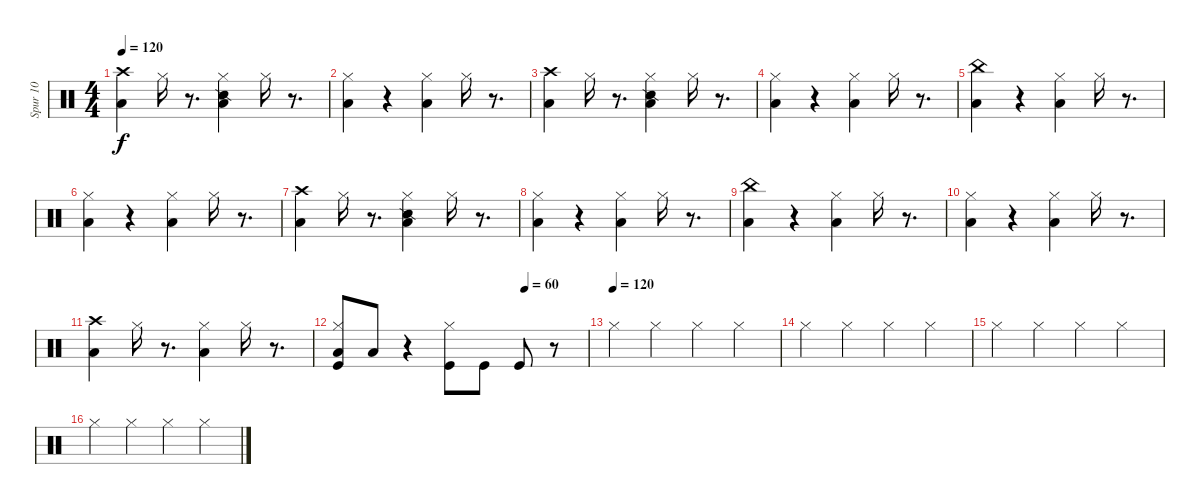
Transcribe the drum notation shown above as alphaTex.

\track ("Spur 10" "Spur 10") {instrument percussion}
\staff {score}
\articulation defaults
\ts (4 4)
\tempo 120
\clef neutral
\ks c
("Low Floor Tom (hit)" "Crash high (hit)").4{dy f} "Hi-Hat (closed)".16 r.8{d} ("Snare (side stick) 2" "Hi-Hat (closed)" "Low Tom (hit)").4 "Hi-Hat (closed)".16 r.8{d} |
("Hi-Hat (closed)" "Low Floor Tom (hit)").4 r.4 ("Hi-Hat (closed)" "Low Tom (hit)").4 "Hi-Hat (closed)".16 r.8{d} |
("Low Floor Tom (hit)" "Crash high (hit)").4 "Hi-Hat (closed)".16 r.8{d} ("Snare (side stick) 2" "Hi-Hat (closed)" "Low Tom (hit)").4 "Hi-Hat (closed)".16 r.8{d} |
("Hi-Hat (closed)" "Low Floor Tom (hit)").4 r.4 ("Hi-Hat (closed)" "Low Tom (hit)").4 "Hi-Hat (closed)".16 r.8{d} |
("Low Floor Tom (hit)" "China (hit)").4 r.4 ("Hi-Hat (closed)" "Low Tom (hit)").4 "Hi-Hat (closed)".16 r.8{d} |
("Hi-Hat (closed)" "Low Floor Tom (hit)").4 r.4 ("Hi-Hat (closed)" "Low Tom (hit)").4 "Hi-Hat (closed)".16 r.8{d} |
("Low Floor Tom (hit)" "Crash high (hit)").4 "Hi-Hat (closed)".16 r.8{d} ("Snare (side stick) 2" "Hi-Hat (closed)" "Low Tom (hit)").4 "Hi-Hat (closed)".16 r.8{d} |
("Hi-Hat (closed)" "Low Floor Tom (hit)").4 r.4 ("Hi-Hat (closed)" "Low Tom (hit)").4 "Hi-Hat (closed)".16 r.8{d} |
("Low Floor Tom (hit)" "China (hit)").4 r.4 ("Hi-Hat (closed)" "Low Tom (hit)").4 "Hi-Hat (closed)".16 r.8{d} |
("Hi-Hat (closed)" "Low Floor Tom (hit)").4 r.4 ("Hi-Hat (closed)" "Low Tom (hit)").4 "Hi-Hat (closed)".16 r.8{d} |
("Low Floor Tom (hit)" "Crash high (hit)").4 "Hi-Hat (closed)".16 r.8{d} ("Hi-Hat (closed)" "Low Tom (hit)").4 "Hi-Hat (closed)".16 r.8{d} |
\tempo (60 0.75)
("Low Floor Tom (hit)" "Hi-Hat (closed)" "Kick (hit)").8 "Low Floor Tom (hit)".8 r.4 ("Kick (hit)" "Hi-Hat (closed)").8 "Kick (hit)".8 "Kick (hit)".8 r.8 |
\tempo (120)
"Hi-Hat (closed)".4 "Hi-Hat (closed)".4 "Hi-Hat (closed)".4 "Hi-Hat (closed)".4 |
"Hi-Hat (closed)".4 "Hi-Hat (closed)".4 "Hi-Hat (closed)".4 "Hi-Hat (closed)".4 |
"Hi-Hat (closed)".4 "Hi-Hat (closed)".4 "Hi-Hat (closed)".4 "Hi-Hat (closed)".4 |
"Hi-Hat (closed)".4 "Hi-Hat (closed)".4 "Hi-Hat (closed)".4 "Hi-Hat (closed)".4
